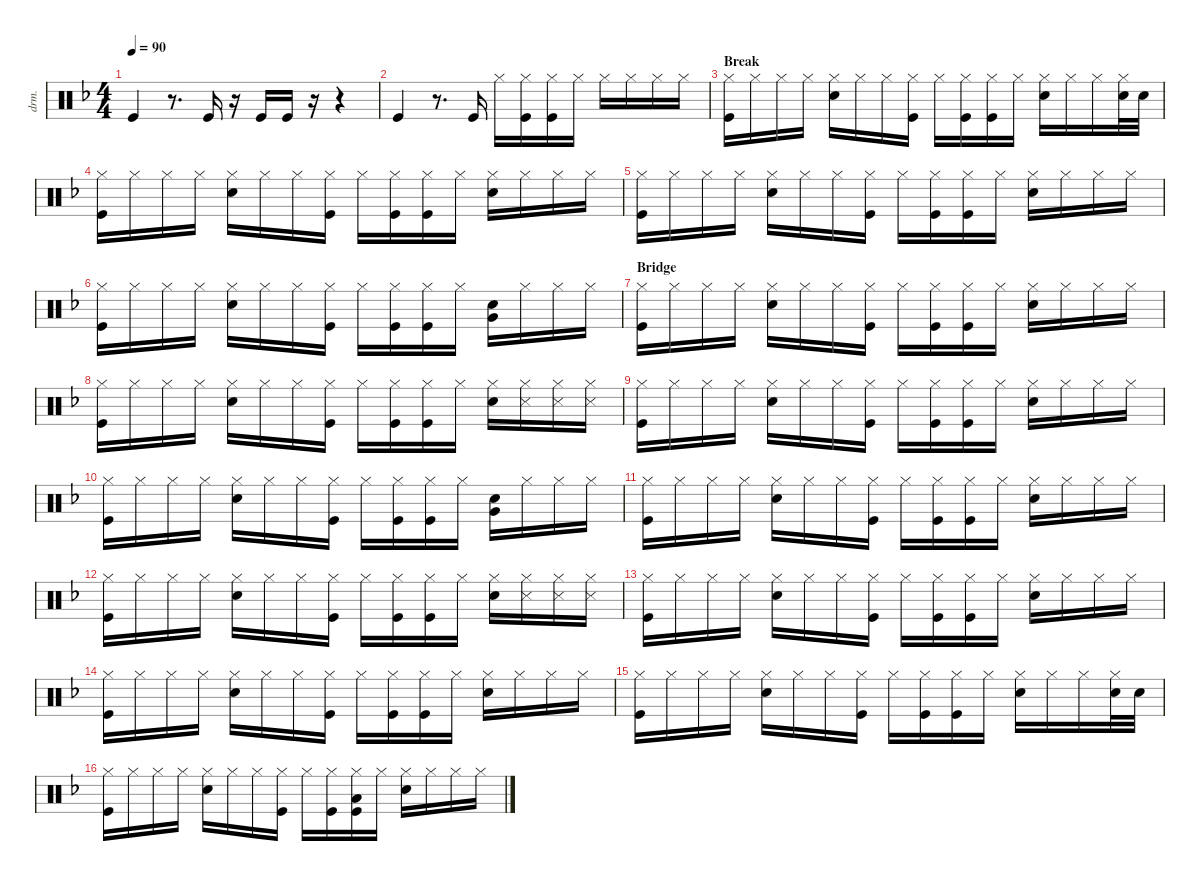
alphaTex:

\defaultSystemsLayout 4
\hideDynamics
\bracketExtendMode nobrackets
\track ("Drumkit" "drm.") {instrument percussion}
\staff {score}
\articulation defaults
\ts (4 4)
\tempo 90
\clef neutral
\ks f "Kick (hit)"{acc forcenatural}.4{dy mf}
r.8{d} "Kick (hit)"{acc forcenatural}.16 r.16 "Kick (hit)"{acc forcenatural}.16 "Kick (hit)"{acc forcenatural}.16 r.16 r.4 |
"Kick (hit)"{acc forcenatural}.4 r.8{d} "Kick (hit)"{acc forcenatural}.16 "Hi-Hat (closed)"{acc forcenatural}.16 ("Kick (hit)"{acc forcenatural} "Hi-Hat (closed)"{acc forcenatural}).16 ("Kick (hit)"{acc forcenatural} "Hi-Hat (closed)"{acc forcenatural}).16 "Hi-Hat (closed)"{acc forcenatural}.16 "Hi-Hat (closed)"{acc forcenatural}.16 "Hi-Hat (closed)"{acc forcenatural}.16 "Hi-Hat (closed)"{acc forcenatural}.16 "Hi-Hat (closed)"{acc forcenatural}.16 |
\section ("" "Break")
("Hi-Hat (closed)"{acc forcenatural} "Kick (hit)"{acc forcenatural}).16 "Hi-Hat (closed)"{acc forcenatural}.16 "Hi-Hat (closed)"{acc forcenatural}.16 "Hi-Hat (closed)"{acc forcenatural}.16 ("Hi-Hat (closed)"{acc forcenatural} "Snare (hit) 2"{acc forcenatural}).16 "Hi-Hat (closed)"{acc forcenatural}.16 "Hi-Hat (closed)"{acc forcenatural}.16 ("Hi-Hat (closed)"{acc forcenatural} "Kick (hit)"{acc forcenatural}).16 "Hi-Hat (closed)"{acc forcenatural}.16 ("Hi-Hat (closed)"{acc forcenatural} "Kick (hit)"{acc forcenatural}).16 ("Hi-Hat (closed)"{acc forcenatural} "Kick (hit)"{acc forcenatural}).16 "Hi-Hat (closed)"{acc forcenatural}.16 ("Hi-Hat (closed)"{acc forcenatural} "Snare (hit) 2"{acc forcenatural}).16 "Hi-Hat (closed)"{acc forcenatural}.16 "Hi-Hat (closed)"{acc forcenatural}.16 ("Hi-Hat (closed)"{acc forcenatural} "Snare (hit) 2"{acc forcenatural}).32 "Snare (hit) 2"{acc forcenatural}.32 |
("Hi-Hat (closed)"{acc forcenatural} "Kick (hit)"{acc forcenatural}).16 "Hi-Hat (closed)"{acc forcenatural}.16 "Hi-Hat (closed)"{acc forcenatural}.16 "Hi-Hat (closed)"{acc forcenatural}.16 ("Hi-Hat (closed)"{acc forcenatural} "Snare (hit) 2"{acc forcenatural}).16 "Hi-Hat (closed)"{acc forcenatural}.16 "Hi-Hat (closed)"{acc forcenatural}.16 ("Hi-Hat (closed)"{acc forcenatural} "Kick (hit)"{acc forcenatural}).16 "Hi-Hat (closed)"{acc forcenatural}.16 ("Hi-Hat (closed)"{acc forcenatural} "Kick (hit)"{acc forcenatural}).16 ("Hi-Hat (closed)"{acc forcenatural} "Kick (hit)"{acc forcenatural}).16 "Hi-Hat (closed)"{acc forcenatural}.16 ("Hi-Hat (closed)"{acc forcenatural} "Snare (hit) 2"{acc forcenatural}).16 "Hi-Hat (closed)"{acc forcenatural}.16 "Hi-Hat (closed)"{acc forcenatural}.16 "Hi-Hat (closed)"{acc forcenatural}.16 |
("Hi-Hat (closed)"{acc forcenatural} "Kick (hit)"{acc forcenatural}).16 "Hi-Hat (closed)"{acc forcenatural}.16 "Hi-Hat (closed)"{acc forcenatural}.16 "Hi-Hat (closed)"{acc forcenatural}.16 ("Hi-Hat (closed)"{acc forcenatural} "Snare (hit) 2"{acc forcenatural}).16 "Hi-Hat (closed)"{acc forcenatural}.16 "Hi-Hat (closed)"{acc forcenatural}.16 ("Hi-Hat (closed)"{acc forcenatural} "Kick (hit)"{acc forcenatural}).16 "Hi-Hat (closed)"{acc forcenatural}.16 ("Hi-Hat (closed)"{acc forcenatural} "Kick (hit)"{acc forcenatural}).16 ("Hi-Hat (closed)"{acc forcenatural} "Kick (hit)"{acc forcenatural}).16 "Hi-Hat (closed)"{acc forcenatural}.16 ("Hi-Hat (closed)"{acc forcenatural} "Snare (hit) 2"{acc forcenatural}).16 "Hi-Hat (closed)"{acc forcenatural}.16 "Hi-Hat (closed)"{acc forcenatural}.16 "Hi-Hat (closed)"{acc forcenatural}.16 |
("Hi-Hat (closed)"{acc forcenatural} "Kick (hit)"{acc forcenatural}).16 "Hi-Hat (closed)"{acc forcenatural}.16 "Hi-Hat (closed)"{acc forcenatural}.16 "Hi-Hat (closed)"{acc forcenatural}.16 ("Hi-Hat (closed)"{acc forcenatural} "Snare (hit) 2"{acc forcenatural}).16 "Hi-Hat (closed)"{acc forcenatural}.16 "Hi-Hat (closed)"{acc forcenatural}.16 ("Hi-Hat (closed)"{acc forcenatural} "Kick (hit)"{acc forcenatural}).16 "Hi-Hat (closed)"{acc forcenatural}.16 ("Hi-Hat (closed)"{acc forcenatural} "Kick (hit)"{acc forcenatural}).16 ("Hi-Hat (closed)"{acc forcenatural} "Kick (hit)"{acc forcenatural}).16 "Hi-Hat (closed)"{acc forcenatural}.16 ("Snare (hit) 2"{acc forcenatural} "Very Low Tom (hit)"{acc forcenatural}).16 "Hi-Hat (closed)"{acc forcenatural}.16 "Hi-Hat (closed)"{acc forcenatural}.16 "Hi-Hat (closed)"{acc forcenatural}.16 |
\section ("" "Bridge")
("Hi-Hat (closed)"{acc forcenatural} "Kick (hit)"{acc forcenatural}).16 "Hi-Hat (closed)"{acc forcenatural}.16 "Hi-Hat (closed)"{acc forcenatural}.16 "Hi-Hat (closed)"{acc forcenatural}.16 ("Hi-Hat (closed)"{acc forcenatural} "Snare (hit) 2"{acc forcenatural}).16 "Hi-Hat (closed)"{acc forcenatural}.16 "Hi-Hat (closed)"{acc forcenatural}.16 ("Hi-Hat (closed)"{acc forcenatural} "Kick (hit)"{acc forcenatural}).16 "Hi-Hat (closed)"{acc forcenatural}.16 ("Hi-Hat (closed)"{acc forcenatural} "Kick (hit)"{acc forcenatural}).16 ("Hi-Hat (closed)"{acc forcenatural} "Kick (hit)"{acc forcenatural}).16 "Hi-Hat (closed)"{acc forcenatural}.16 ("Hi-Hat (closed)"{acc forcenatural} "Snare (hit) 2"{acc forcenatural}).16 "Hi-Hat (closed)"{acc forcenatural}.16 "Hi-Hat (closed)"{acc forcenatural}.16 "Hi-Hat (closed)"{acc forcenatural}.16 |
("Hi-Hat (closed)"{acc forcenatural} "Kick (hit)"{acc forcenatural}).16 "Hi-Hat (closed)"{acc forcenatural}.16 "Hi-Hat (closed)"{acc forcenatural}.16 "Hi-Hat (closed)"{acc forcenatural}.16 ("Hi-Hat (closed)"{acc forcenatural} "Snare (hit) 2"{acc forcenatural}).16 "Hi-Hat (closed)"{acc forcenatural}.16 "Hi-Hat (closed)"{acc forcenatural}.16 ("Hi-Hat (closed)"{acc forcenatural} "Kick (hit)"{acc forcenatural}).16 "Hi-Hat (closed)"{acc forcenatural}.16 ("Hi-Hat (closed)"{acc forcenatural} "Kick (hit)"{acc forcenatural}).16 ("Hi-Hat (closed)"{acc forcenatural} "Kick (hit)"{acc forcenatural}).16 "Hi-Hat (closed)"{acc forcenatural}.16 ("Hi-Hat (closed)"{acc forcenatural} "Snare (hit) 2"{acc forcenatural}).16 ("Hi-Hat (closed)"{acc forcenatural} "Snare (side stick) 3"{acc forcenatural}).16 ("Hi-Hat (closed)"{acc forcenatural} "Snare (side stick) 3"{acc forcenatural}).16 ("Hi-Hat (closed)"{acc forcenatural} "Snare (side stick) 3"{acc forcenatural}).16 |
("Hi-Hat (closed)"{acc forcenatural} "Kick (hit)"{acc forcenatural}).16 "Hi-Hat (closed)"{acc forcenatural}.16 "Hi-Hat (closed)"{acc forcenatural}.16 "Hi-Hat (closed)"{acc forcenatural}.16 ("Hi-Hat (closed)"{acc forcenatural} "Snare (hit) 2"{acc forcenatural}).16 "Hi-Hat (closed)"{acc forcenatural}.16 "Hi-Hat (closed)"{acc forcenatural}.16 ("Hi-Hat (closed)"{acc forcenatural} "Kick (hit)"{acc forcenatural}).16 "Hi-Hat (closed)"{acc forcenatural}.16 ("Hi-Hat (closed)"{acc forcenatural} "Kick (hit)"{acc forcenatural}).16 ("Hi-Hat (closed)"{acc forcenatural} "Kick (hit)"{acc forcenatural}).16 "Hi-Hat (closed)"{acc forcenatural}.16 ("Hi-Hat (closed)"{acc forcenatural} "Snare (hit) 2"{acc forcenatural}).16 "Hi-Hat (closed)"{acc forcenatural}.16 "Hi-Hat (closed)"{acc forcenatural}.16 "Hi-Hat (closed)"{acc forcenatural}.16 |
("Hi-Hat (closed)"{acc forcenatural} "Kick (hit)"{acc forcenatural}).16 "Hi-Hat (closed)"{acc forcenatural}.16 "Hi-Hat (closed)"{acc forcenatural}.16 "Hi-Hat (closed)"{acc forcenatural}.16 ("Hi-Hat (closed)"{acc forcenatural} "Snare (hit) 2"{acc forcenatural}).16 "Hi-Hat (closed)"{acc forcenatural}.16 "Hi-Hat (closed)"{acc forcenatural}.16 ("Hi-Hat (closed)"{acc forcenatural} "Kick (hit)"{acc forcenatural}).16 "Hi-Hat (closed)"{acc forcenatural}.16 ("Hi-Hat (closed)"{acc forcenatural} "Kick (hit)"{acc forcenatural}).16 ("Hi-Hat (closed)"{acc forcenatural} "Kick (hit)"{acc forcenatural}).16 "Hi-Hat (closed)"{acc forcenatural}.16 ("Snare (hit) 2"{acc forcenatural} "Very Low Tom (hit)"{acc forcenatural}).16 "Hi-Hat (closed)"{acc forcenatural}.16 "Hi-Hat (closed)"{acc forcenatural}.16 "Hi-Hat (closed)"{acc forcenatural}.16 |
("Hi-Hat (closed)"{acc forcenatural} "Kick (hit)"{acc forcenatural}).16 "Hi-Hat (closed)"{acc forcenatural}.16 "Hi-Hat (closed)"{acc forcenatural}.16 "Hi-Hat (closed)"{acc forcenatural}.16 ("Hi-Hat (closed)"{acc forcenatural} "Snare (hit) 2"{acc forcenatural}).16 "Hi-Hat (closed)"{acc forcenatural}.16 "Hi-Hat (closed)"{acc forcenatural}.16 ("Hi-Hat (closed)"{acc forcenatural} "Kick (hit)"{acc forcenatural}).16 "Hi-Hat (closed)"{acc forcenatural}.16 ("Hi-Hat (closed)"{acc forcenatural} "Kick (hit)"{acc forcenatural}).16 ("Hi-Hat (closed)"{acc forcenatural} "Kick (hit)"{acc forcenatural}).16 "Hi-Hat (closed)"{acc forcenatural}.16 ("Hi-Hat (closed)"{acc forcenatural} "Snare (hit) 2"{acc forcenatural}).16 "Hi-Hat (closed)"{acc forcenatural}.16 "Hi-Hat (closed)"{acc forcenatural}.16 "Hi-Hat (closed)"{acc forcenatural}.16 |
("Hi-Hat (closed)"{acc forcenatural} "Kick (hit)"{acc forcenatural}).16 "Hi-Hat (closed)"{acc forcenatural}.16 "Hi-Hat (closed)"{acc forcenatural}.16 "Hi-Hat (closed)"{acc forcenatural}.16 ("Hi-Hat (closed)"{acc forcenatural} "Snare (hit) 2"{acc forcenatural}).16 "Hi-Hat (closed)"{acc forcenatural}.16 "Hi-Hat (closed)"{acc forcenatural}.16 ("Hi-Hat (closed)"{acc forcenatural} "Kick (hit)"{acc forcenatural}).16 "Hi-Hat (closed)"{acc forcenatural}.16 ("Hi-Hat (closed)"{acc forcenatural} "Kick (hit)"{acc forcenatural}).16 ("Hi-Hat (closed)"{acc forcenatural} "Kick (hit)"{acc forcenatural}).16 "Hi-Hat (closed)"{acc forcenatural}.16 ("Hi-Hat (closed)"{acc forcenatural} "Snare (hit) 2"{acc forcenatural}).16 ("Hi-Hat (closed)"{acc forcenatural} "Snare (side stick) 3"{acc forcenatural}).16 ("Hi-Hat (closed)"{acc forcenatural} "Snare (side stick) 3"{acc forcenatural}).16 ("Hi-Hat (closed)"{acc forcenatural} "Snare (side stick) 3"{acc forcenatural}).16 |
("Hi-Hat (closed)"{acc forcenatural} "Kick (hit)"{acc forcenatural}).16 "Hi-Hat (closed)"{acc forcenatural}.16 "Hi-Hat (closed)"{acc forcenatural}.16 "Hi-Hat (closed)"{acc forcenatural}.16 ("Hi-Hat (closed)"{acc forcenatural} "Snare (hit) 2"{acc forcenatural}).16 "Hi-Hat (closed)"{acc forcenatural}.16 "Hi-Hat (closed)"{acc forcenatural}.16 ("Hi-Hat (closed)"{acc forcenatural} "Kick (hit)"{acc forcenatural}).16 "Hi-Hat (closed)"{acc forcenatural}.16 ("Hi-Hat (closed)"{acc forcenatural} "Kick (hit)"{acc forcenatural}).16 ("Hi-Hat (closed)"{acc forcenatural} "Kick (hit)"{acc forcenatural}).16 "Hi-Hat (closed)"{acc forcenatural}.16 ("Hi-Hat (closed)"{acc forcenatural} "Snare (hit) 2"{acc forcenatural}).16 "Hi-Hat (closed)"{acc forcenatural}.16 "Hi-Hat (closed)"{acc forcenatural}.16 "Hi-Hat (closed)"{acc forcenatural}.16 |
("Hi-Hat (closed)"{acc forcenatural} "Kick (hit)"{acc forcenatural}).16 "Hi-Hat (closed)"{acc forcenatural}.16 "Hi-Hat (closed)"{acc forcenatural}.16 "Hi-Hat (closed)"{acc forcenatural}.16 ("Hi-Hat (closed)"{acc forcenatural} "Snare (hit) 2"{acc forcenatural}).16 "Hi-Hat (closed)"{acc forcenatural}.16 "Hi-Hat (closed)"{acc forcenatural}.16 ("Hi-Hat (closed)"{acc forcenatural} "Kick (hit)"{acc forcenatural}).16 "Hi-Hat (closed)"{acc forcenatural}.16 ("Hi-Hat (closed)"{acc forcenatural} "Kick (hit)"{acc forcenatural}).16 ("Hi-Hat (closed)"{acc forcenatural} "Kick (hit)"{acc forcenatural}).16 "Hi-Hat (closed)"{acc forcenatural}.16 ("Hi-Hat (closed)"{acc forcenatural} "Snare (hit) 2"{acc forcenatural}).16 "Hi-Hat (closed)"{acc forcenatural}.16 "Hi-Hat (closed)"{acc forcenatural}.16 "Hi-Hat (closed)"{acc forcenatural}.16 |
("Hi-Hat (closed)"{acc forcenatural} "Kick (hit)"{acc forcenatural}).16 "Hi-Hat (closed)"{acc forcenatural}.16 "Hi-Hat (closed)"{acc forcenatural}.16 "Hi-Hat (closed)"{acc forcenatural}.16 ("Hi-Hat (closed)"{acc forcenatural} "Snare (hit) 2"{acc forcenatural}).16 "Hi-Hat (closed)"{acc forcenatural}.16 "Hi-Hat (closed)"{acc forcenatural}.16 ("Hi-Hat (closed)"{acc forcenatural} "Kick (hit)"{acc forcenatural}).16 "Hi-Hat (closed)"{acc forcenatural}.16 ("Hi-Hat (closed)"{acc forcenatural} "Kick (hit)"{acc forcenatural}).16 ("Hi-Hat (closed)"{acc forcenatural} "Kick (hit)"{acc forcenatural}).16 "Hi-Hat (closed)"{acc forcenatural}.16 ("Hi-Hat (closed)"{acc forcenatural} "Snare (hit) 2"{acc forcenatural}).16 "Hi-Hat (closed)"{acc forcenatural}.16 "Hi-Hat (closed)"{acc forcenatural}.16 ("Hi-Hat (closed)"{acc forcenatural} "Snare (hit) 2"{acc forcenatural}).32 "Snare (hit) 2"{acc forcenatural}.32 |
("Hi-Hat (closed)"{acc forcenatural} "Kick (hit)"{acc forcenatural}).16 "Hi-Hat (closed)"{acc forcenatural}.16 "Hi-Hat (closed)"{acc forcenatural}.16 "Hi-Hat (closed)"{acc forcenatural}.16 ("Hi-Hat (closed)"{acc forcenatural} "Snare (hit) 2"{acc forcenatural}).16 "Hi-Hat (closed)"{acc forcenatural}.16 "Hi-Hat (closed)"{acc forcenatural}.16 ("Hi-Hat (closed)"{acc forcenatural} "Kick (hit)"{acc forcenatural}).16 "Hi-Hat (closed)"{acc forcenatural}.16 ("Hi-Hat (closed)"{acc forcenatural} "Kick (hit)"{acc forcenatural}).16 ("Hi-Hat (closed)"{acc forcenatural} "Kick (hit)"{acc forcenatural} "Low Tom (hit)"{acc forcenatural}).16 "Hi-Hat (closed)"{acc forcenatural}.16 ("Hi-Hat (closed)"{acc forcenatural} "Snare (hit) 2"{acc forcenatural}).16 "Hi-Hat (closed)"{acc forcenatural}.16 "Hi-Hat (closed)"{acc forcenatural}.16 "Hi-Hat (closed)"{acc forcenatural}.16
